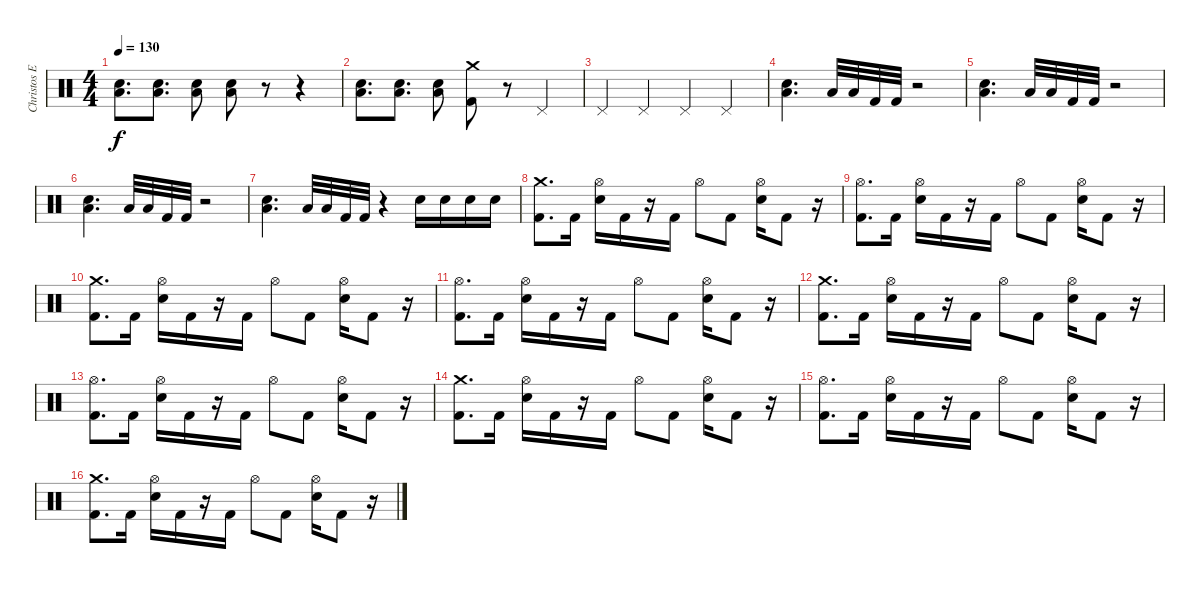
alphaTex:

\track ("Christos Efthimiadis" "Christos E") {instrument percussion}
\staff {score}
\articulation defaults
\ts (4 4)
\tempo 130
\clef neutral
\ks c
("Snare (hit) 2" "Low Floor Tom (hit)").8{d dy f} ("Snare (hit) 2" "Low Floor Tom (hit)").8{d} ("Snare (hit) 2" "Low Floor Tom (hit)").8 ("Snare (hit) 2" "Low Floor Tom (hit)").8 r.8 r.4 |
("Snare (hit) 2" "Low Floor Tom (hit)").8{d} ("Snare (hit) 2" "Low Floor Tom (hit)").8{d} ("Snare (hit) 2" "Low Floor Tom (hit)").8 ("Kick (hit) 2" "Crash medium (hit)").8 r.8 "Pedal Hi-Hat (hit)".4 |
"Pedal Hi-Hat (hit)".4 "Pedal Hi-Hat (hit)".4 "Pedal Hi-Hat (hit)".4 "Pedal Hi-Hat (hit)".4 |
("Snare (hit) 2" "Low Floor Tom (hit)").4{d} "Low Tom (hit)".32 "Low Floor Tom (hit)".32 "Kick (hit) 2".32 "Kick (hit) 2".32 r.2 |
("Snare (hit) 2" "Low Floor Tom (hit)").4{d} "Low Tom (hit)".32 "Low Floor Tom (hit)".32 "Kick (hit) 2".32 "Kick (hit) 2".32 r.2 |
("Snare (hit) 2" "Low Floor Tom (hit)").4{d} "Low Tom (hit)".32 "Low Floor Tom (hit)".32 "Kick (hit) 2".32 "Kick (hit) 2".32 r.2 |
("Snare (hit) 2" "Low Floor Tom (hit)").4{d} "Low Tom (hit)".32 "Low Floor Tom (hit)".32 "Kick (hit) 2".32 "Kick (hit) 2".32 r.4 "Snare (hit) 2".16 "Snare (hit) 2".16 "Snare (hit) 2".16 "Snare (hit) 2".16 |
("Crash medium (hit)" "Kick (hit) 2").8{d} "Kick (hit) 2".16 ("Hi-Hat (open)" "Snare (hit) 2").16 "Kick (hit) 2".16 r.16 "Kick (hit) 2".16 "Hi-Hat (open)".8 "Kick (hit) 2".8 ("Hi-Hat (open)" "Snare (hit) 2").16 "Kick (hit) 2".8 r.16 |
("Hi-Hat (open)" "Kick (hit) 2").8{d} "Kick (hit) 2".16 ("Hi-Hat (open)" "Snare (hit) 2").16 "Kick (hit) 2".16 r.16 "Kick (hit) 2".16 "Hi-Hat (open)".8 "Kick (hit) 2".8 ("Hi-Hat (open)" "Snare (hit) 2").16 "Kick (hit) 2".8 r.16 |
("Crash medium (hit)" "Kick (hit) 2").8{d} "Kick (hit) 2".16 ("Hi-Hat (open)" "Snare (hit) 2").16 "Kick (hit) 2".16 r.16 "Kick (hit) 2".16 "Hi-Hat (open)".8 "Kick (hit) 2".8 ("Hi-Hat (open)" "Snare (hit) 2").16 "Kick (hit) 2".8 r.16 |
("Hi-Hat (open)" "Kick (hit) 2").8{d} "Kick (hit) 2".16 ("Hi-Hat (open)" "Snare (hit) 2").16 "Kick (hit) 2".16 r.16 "Kick (hit) 2".16 "Hi-Hat (open)".8 "Kick (hit) 2".8 ("Hi-Hat (open)" "Snare (hit) 2").16 "Kick (hit) 2".8 r.16 |
("Crash medium (hit)" "Kick (hit) 2").8{d} "Kick (hit) 2".16 ("Hi-Hat (open)" "Snare (hit) 2").16 "Kick (hit) 2".16 r.16 "Kick (hit) 2".16 "Hi-Hat (open)".8 "Kick (hit) 2".8 ("Hi-Hat (open)" "Snare (hit) 2").16 "Kick (hit) 2".8 r.16 |
("Hi-Hat (open)" "Kick (hit) 2").8{d} "Kick (hit) 2".16 ("Hi-Hat (open)" "Snare (hit) 2").16 "Kick (hit) 2".16 r.16 "Kick (hit) 2".16 "Hi-Hat (open)".8 "Kick (hit) 2".8 ("Hi-Hat (open)" "Snare (hit) 2").16 "Kick (hit) 2".8 r.16 |
("Crash medium (hit)" "Kick (hit) 2").8{d} "Kick (hit) 2".16 ("Hi-Hat (open)" "Snare (hit) 2").16 "Kick (hit) 2".16 r.16 "Kick (hit) 2".16 "Hi-Hat (open)".8 "Kick (hit) 2".8 ("Hi-Hat (open)" "Snare (hit) 2").16 "Kick (hit) 2".8 r.16 |
("Hi-Hat (open)" "Kick (hit) 2").8{d} "Kick (hit) 2".16 ("Hi-Hat (open)" "Snare (hit) 2").16 "Kick (hit) 2".16 r.16 "Kick (hit) 2".16 "Hi-Hat (open)".8 "Kick (hit) 2".8 ("Hi-Hat (open)" "Snare (hit) 2").16 "Kick (hit) 2".8 r.16 |
("Crash medium (hit)" "Kick (hit) 2").8{d} "Kick (hit) 2".16 ("Hi-Hat (open)" "Snare (hit) 2").16 "Kick (hit) 2".16 r.16 "Kick (hit) 2".16 "Hi-Hat (open)".8 "Kick (hit) 2".8 ("Hi-Hat (open)" "Snare (hit) 2").16 "Kick (hit) 2".8 r.16
